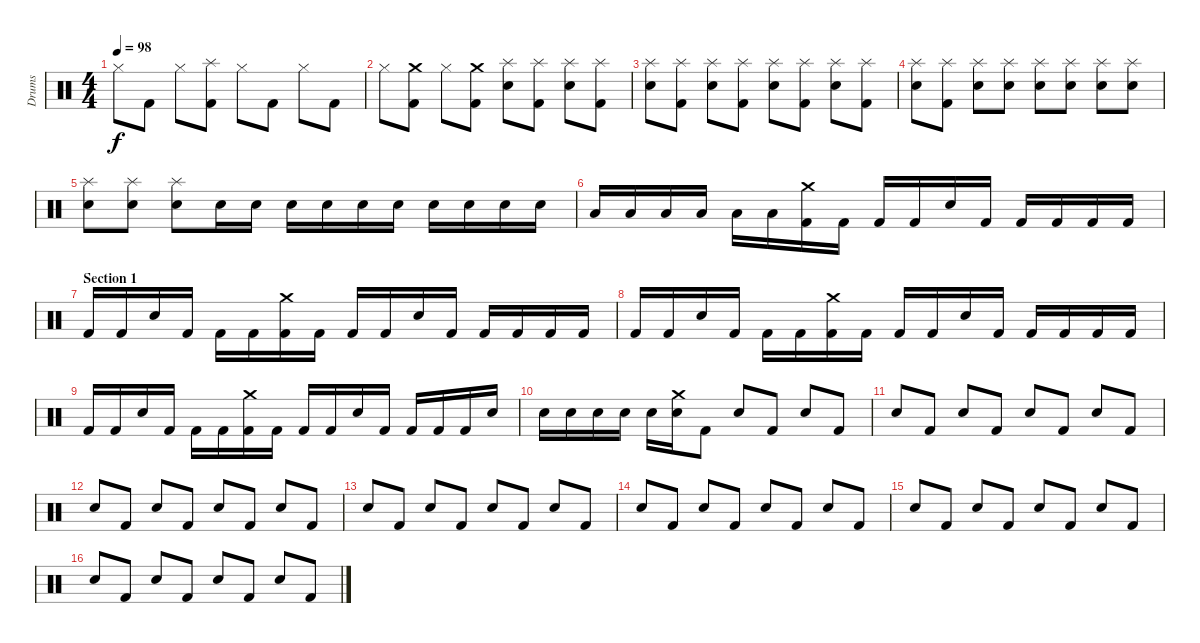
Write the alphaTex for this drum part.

\track ("Drums" "Drums") {instrument percussion}
\staff {score}
\articulation defaults
\ts (4 4)
\tempo 98
\clef neutral
\ks c "Hi-Hat (closed)".8{dy f} "Kick (hit) 2".8 "Hi-Hat (closed)".8
("Splash (hit)" "Kick (hit) 2").8 "Hi-Hat (closed)".8 "Kick (hit) 2".8 "Hi-Hat (closed)".8 "Kick (hit) 2".8 |
"Hi-Hat (closed)".8 ("Crash medium (hit)" "Kick (hit) 2").8 "Hi-Hat (closed)".8 ("Crash medium (hit)" "Kick (hit) 2").8 ("Splash (hit)" "Snare (hit) 2").8 ("Splash (hit)" "Kick (hit) 2").8 ("Splash (hit)" "Snare (hit) 2").8 ("Splash (hit)" "Kick (hit) 2").8 |
("Splash (hit)" "Snare (hit) 2").8 ("Splash (hit)" "Kick (hit) 2").8 ("Splash (hit)" "Snare (hit) 2").8 ("Splash (hit)" "Kick (hit) 2").8 ("Splash (hit)" "Snare (hit) 2").8 ("Splash (hit)" "Kick (hit) 2").8 ("Splash (hit)" "Snare (hit) 2").8 ("Splash (hit)" "Kick (hit) 2").8 |
("Splash (hit)" "Snare (hit) 2").8 ("Splash (hit)" "Kick (hit) 2").8 ("Splash (hit)" "Snare (hit) 2").8 ("Splash (hit)" "Snare (hit) 2").8 ("Splash (hit)" "Snare (hit) 2").8 ("Splash (hit)" "Snare (hit) 2").8 ("Splash (hit)" "Snare (hit) 2").8 ("Splash (hit)" "Snare (hit) 2").8 |
("Splash (hit)" "Snare (hit) 2").8 ("Splash (hit)" "Snare (hit) 2").8 ("Splash (hit)" "Snare (hit) 2").8 "Snare (hit) 2".16 "Snare (hit) 2".16 "Snare (hit) 2".16 "Snare (hit) 2".16 "Snare (hit) 2".16 "Snare (hit) 2".16 "Snare (hit) 2".16 "Snare (hit) 2".16 "Snare (hit) 2".16 "Snare (hit) 2".16 |
"Low Floor Tom (hit)".16 "Low Floor Tom (hit)".16 "Low Floor Tom (hit)".16 "Low Floor Tom (hit)".16 "Low Floor Tom (hit)".16 "Low Floor Tom (hit)".16 ("Crash medium (hit)" "Kick (hit) 2").16 "Kick (hit) 2".16 "Kick (hit) 2".16 "Kick (hit) 2".16 "Snare (hit) 2".16 "Kick (hit) 2".16 "Kick (hit) 2".16 "Kick (hit) 2".16 "Kick (hit) 2".16 "Kick (hit) 2".16 |
\section ("" "Section 1")
"Kick (hit) 2".16 "Kick (hit) 2".16 "Snare (hit) 2".16 "Kick (hit) 2".16 "Kick (hit) 2".16 "Kick (hit) 2".16 ("Crash medium (hit)" "Kick (hit) 2").16 "Kick (hit) 2".16 "Kick (hit) 2".16 "Kick (hit) 2".16 "Snare (hit) 2".16 "Kick (hit) 2".16 "Kick (hit) 2".16 "Kick (hit) 2".16 "Kick (hit) 2".16 "Kick (hit) 2".16 |
"Kick (hit) 2".16 "Kick (hit) 2".16 "Snare (hit) 2".16 "Kick (hit) 2".16 "Kick (hit) 2".16 "Kick (hit) 2".16 ("Crash medium (hit)" "Kick (hit) 2").16 "Kick (hit) 2".16 "Kick (hit) 2".16 "Kick (hit) 2".16 "Snare (hit) 2".16 "Kick (hit) 2".16 "Kick (hit) 2".16 "Kick (hit) 2".16 "Kick (hit) 2".16 "Kick (hit) 2".16 |
"Kick (hit) 2".16 "Kick (hit) 2".16 "Snare (hit) 2".16 "Kick (hit) 2".16 "Kick (hit) 2".16 "Kick (hit) 2".16 ("Crash medium (hit)" "Kick (hit) 2").16 "Kick (hit) 2".16 "Kick (hit) 2".16 "Kick (hit) 2".16 "Snare (hit) 2".16 "Kick (hit) 2".16 "Kick (hit) 2".16 "Kick (hit) 2".16 "Kick (hit) 2".16 "Snare (hit) 2".16 |
\section ("" "")
"Snare (hit) 2".16 "Snare (hit) 2".16 "Snare (hit) 2".16 "Snare (hit) 2".16 "Snare (hit) 2".16 ("Crash medium (hit)" "Snare (hit) 2").16 "Kick (hit) 2".8 "Snare (hit) 2".8 "Kick (hit) 2".8 "Snare (hit) 2".8 "Kick (hit) 2".8 |
"Snare (hit) 2".8 "Kick (hit) 2".8 "Snare (hit) 2".8 "Kick (hit) 2".8 "Snare (hit) 2".8 "Kick (hit) 2".8 "Snare (hit) 2".8 "Kick (hit) 2".8 |
"Snare (hit) 2".8 "Kick (hit) 2".8 "Snare (hit) 2".8 "Kick (hit) 2".8 "Snare (hit) 2".8 "Kick (hit) 2".8 "Snare (hit) 2".8 "Kick (hit) 2".8 |
"Snare (hit) 2".8 "Kick (hit) 2".8 "Snare (hit) 2".8 "Kick (hit) 2".8 "Snare (hit) 2".8 "Kick (hit) 2".8 "Snare (hit) 2".8 "Kick (hit) 2".8 |
"Snare (hit) 2".8 "Kick (hit) 2".8 "Snare (hit) 2".8 "Kick (hit) 2".8 "Snare (hit) 2".8 "Kick (hit) 2".8 "Snare (hit) 2".8 "Kick (hit) 2".8 |
"Snare (hit) 2".8 "Kick (hit) 2".8 "Snare (hit) 2".8 "Kick (hit) 2".8 "Snare (hit) 2".8 "Kick (hit) 2".8 "Snare (hit) 2".8 "Kick (hit) 2".8 |
"Snare (hit) 2".8 "Kick (hit) 2".8 "Snare (hit) 2".8 "Kick (hit) 2".8 "Snare (hit) 2".8 "Kick (hit) 2".8 "Snare (hit) 2".8 "Kick (hit) 2".8
